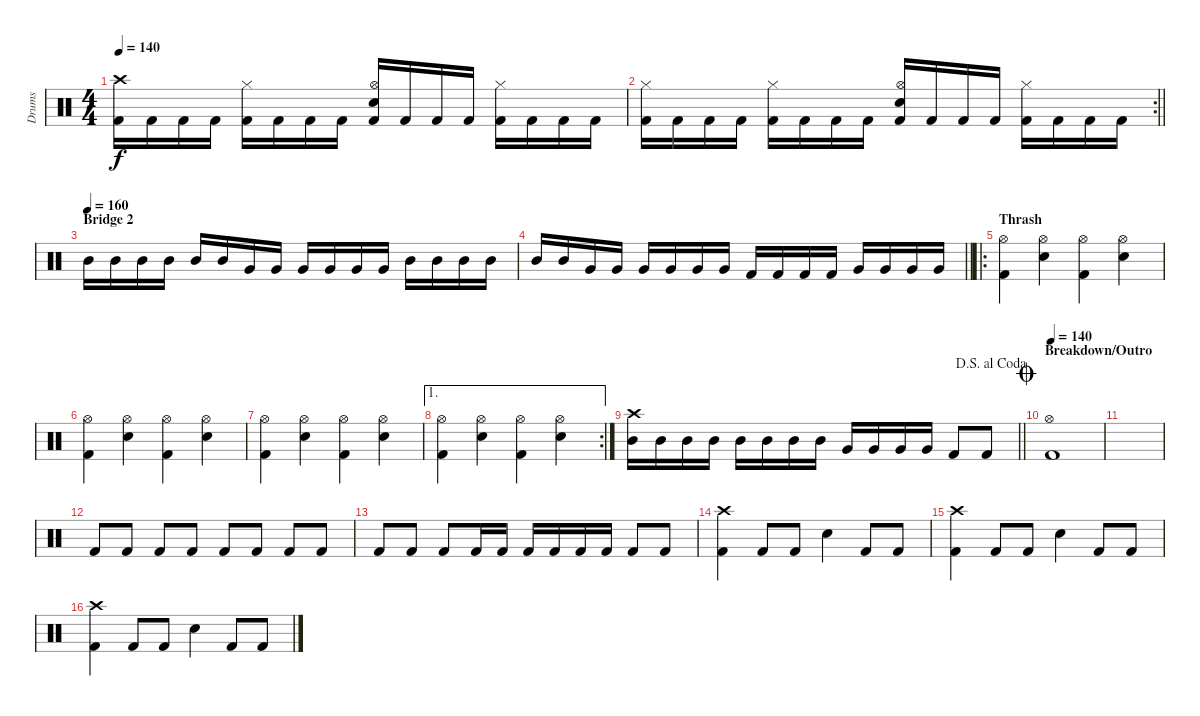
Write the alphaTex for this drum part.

\track ("Drums" "Drums") {instrument percussion}
\staff {score}
\articulation defaults
\ts (4 4)
\tempo 140
\clef neutral
\ks c
("Crash high (hit)" "Kick (hit) 2").16{dy f} "Kick (hit) 2".16 "Kick (hit) 2".16 "Kick (hit) 2".16 ("Hi-Hat (closed)" "Kick (hit) 2").16 "Kick (hit) 2".16 "Kick (hit) 2".16 "Kick (hit) 2".16 ("Hi-Hat (open)" "Snare (hit) 2" "Kick (hit) 2").16 "Kick (hit) 2".16 "Kick (hit) 2".16 "Kick (hit) 2".16 ("Hi-Hat (closed)" "Kick (hit) 2").16 "Kick (hit) 2".16 "Kick (hit) 2".16 "Kick (hit) 2".16 |
\rc 2
\barLineRight lightlight
("Hi-Hat (closed)" "Kick (hit) 2").16 "Kick (hit) 2".16 "Kick (hit) 2".16 "Kick (hit) 2".16 ("Hi-Hat (closed)" "Kick (hit) 2").16 "Kick (hit) 2".16 "Kick (hit) 2".16 "Kick (hit) 2".16 ("Hi-Hat (open)" "Snare (hit) 2" "Kick (hit) 2").16 "Kick (hit) 2".16 "Kick (hit) 2".16 "Kick (hit) 2".16 ("Hi-Hat (closed)" "Kick (hit) 2").16 "Kick (hit) 2".16 "Kick (hit) 2".16 "Kick (hit) 2".16 |
\section ("" "Bridge 2")
\tempo (160)
"Mid Tom (hit)".16 "Mid Tom (hit)".16 "Mid Tom (hit)".16 "Mid Tom (hit)".16 "Mid Tom (hit)".16 "Mid Tom (hit)".16 "Very Low Tom (hit)".16 "Very Low Tom (hit)".16 "Very Low Tom (hit)".16 "Very Low Tom (hit)".16 "Very Low Tom (hit)".16 "Very Low Tom (hit)".16 "Mid Tom (hit)".16 "Mid Tom (hit)".16 "Mid Tom (hit)".16 "Mid Tom (hit)".16 |
\barLineRight lightlight "Mid Tom (hit)".16 "Mid Tom (hit)".16 "Very Low Tom (hit)".16 "Very Low Tom (hit)".16 "Very Low Tom (hit)".16 "Very Low Tom (hit)".16 "Very Low Tom (hit)".16 "Very Low Tom (hit)".16 "Kick (hit) 2".16 "Kick (hit) 2".16 "Kick (hit) 2".16 "Kick (hit) 2".16 "Very Low Tom (hit)".16 "Very Low Tom (hit)".16 "Very Low Tom (hit)".16 "Very Low Tom (hit)".16
|
\ro
\section ("" "Thrash")
("Hi-Hat (open)" "Kick (hit) 2").4 ("Hi-Hat (open)" "Snare (hit) 2").4 ("Hi-Hat (open)" "Kick (hit) 2").4 ("Hi-Hat (open)" "Snare (hit) 2").4 |
("Hi-Hat (open)" "Kick (hit) 2").4 ("Hi-Hat (open)" "Snare (hit) 2").4 ("Hi-Hat (open)" "Kick (hit) 2").4 ("Hi-Hat (open)" "Snare (hit) 2").4 |
("Hi-Hat (open)" "Kick (hit) 2").4 ("Hi-Hat (open)" "Snare (hit) 2").4 ("Hi-Hat (open)" "Kick (hit) 2").4 ("Hi-Hat (open)" "Snare (hit) 2").4 |
\ae 1
\rc 2
("Hi-Hat (open)" "Kick (hit) 2").4 ("Hi-Hat (open)" "Snare (hit) 2").4 ("Hi-Hat (open)" "Kick (hit) 2").4 ("Hi-Hat (open)" "Snare (hit) 2").4 |
\jump dalsegnoalcoda
\barLineRight lightlight
("Crash high (hit)" "Mid Tom (hit)").16 "Mid Tom (hit)".16 "Mid Tom (hit)".16 "Mid Tom (hit)".16 "Mid Tom (hit)".16 "Mid Tom (hit)".16 "Mid Tom (hit)".16 "Mid Tom (hit)".16 "Very Low Tom (hit)".16 "Very Low Tom (hit)".16 "Very Low Tom (hit)".16 "Very Low Tom (hit)".16 "Kick (hit) 2".8 "Kick (hit) 2".8 |
\section ("" "Breakdown/Outro")
\jump coda
\tempo 140
("Hi-Hat (open)" "Kick (hit) 2").1 |
|
"Kick (hit) 2".8 "Kick (hit) 2".8 "Kick (hit) 2".8 "Kick (hit) 2".8 "Kick (hit) 2".8 "Kick (hit) 2".8 "Kick (hit) 2".8 "Kick (hit) 2".8 |
"Kick (hit) 2".8 "Kick (hit) 2".8 "Kick (hit) 2".8 "Kick (hit) 2".16 "Kick (hit) 2".16 "Kick (hit) 2".16 "Kick (hit) 2".16 "Kick (hit) 2".16 "Kick (hit) 2".16 "Kick (hit) 2".8 "Kick (hit) 2".8 |
("Crash high (hit)" "Kick (hit) 2").4 "Kick (hit) 2".8 "Kick (hit) 2".8 "Snare (hit) 2".4 "Kick (hit) 2".8 "Kick (hit) 2".8 |
("Crash high (hit)" "Kick (hit) 2").4 "Kick (hit) 2".8 "Kick (hit) 2".8 "Snare (hit) 2".4 "Kick (hit) 2".8 "Kick (hit) 2".8 |
("Crash high (hit)" "Kick (hit) 2").4 "Kick (hit) 2".8 "Kick (hit) 2".8 "Snare (hit) 2".4 "Kick (hit) 2".8 "Kick (hit) 2".8
